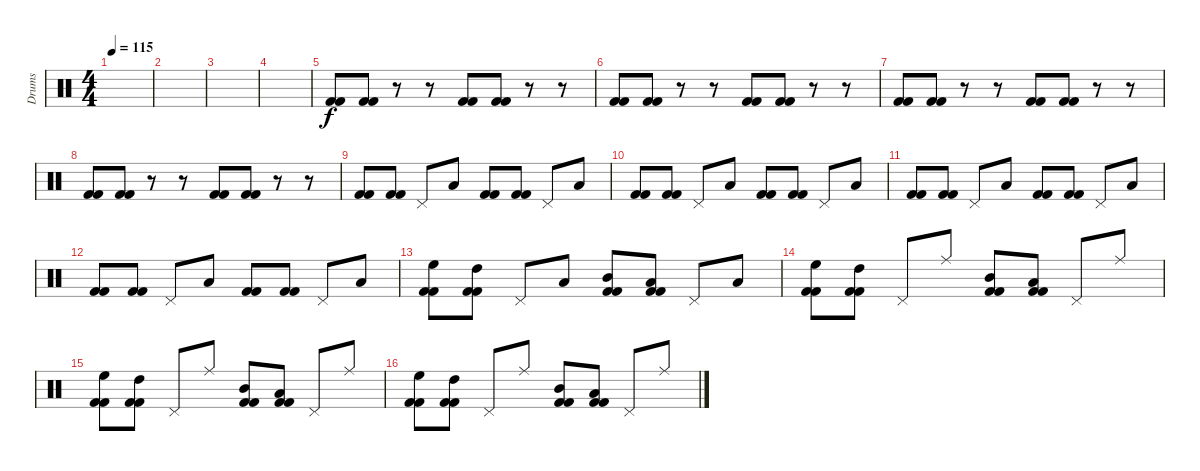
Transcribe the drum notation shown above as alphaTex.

\track ("Drums" "Drums") {instrument percussion}
\staff {score}
\articulation defaults
\ts (4 4)
\tempo 115
\clef neutral
\ks c
|
|
|
|
("Kick (hit) 2" "Kick (hit) 2").8 ("Kick (hit) 2" "Kick (hit) 2").8 r.8 r.8 ("Kick (hit) 2" "Kick (hit) 2").8 ("Kick (hit) 2" "Kick (hit) 2").8 r.8 r.8 |
("Kick (hit) 2" "Kick (hit) 2").8 ("Kick (hit) 2" "Kick (hit) 2").8 r.8 r.8 ("Kick (hit) 2" "Kick (hit) 2").8 ("Kick (hit) 2" "Kick (hit) 2").8 r.8 r.8 |
("Kick (hit) 2" "Kick (hit) 2").8 ("Kick (hit) 2" "Kick (hit) 2").8 r.8 r.8 ("Kick (hit) 2" "Kick (hit) 2").8 ("Kick (hit) 2" "Kick (hit) 2").8 r.8 r.8 |
("Kick (hit) 2" "Kick (hit) 2").8 ("Kick (hit) 2" "Kick (hit) 2").8 r.8 r.8 ("Kick (hit) 2" "Kick (hit) 2").8 ("Kick (hit) 2" "Kick (hit) 2").8 r.8 r.8 |
("Kick (hit) 2" "Kick (hit) 2").8 ("Kick (hit) 2" "Kick (hit) 2").8 "Pedal Hi-Hat (hit)".8 "Low Tom (hit)".8 ("Kick (hit) 2" "Kick (hit) 2").8 ("Kick (hit) 2" "Kick (hit) 2").8 "Pedal Hi-Hat (hit)".8 "Low Tom (hit)".8 |
("Kick (hit) 2" "Kick (hit) 2").8 ("Kick (hit) 2" "Kick (hit) 2").8 "Pedal Hi-Hat (hit)".8 "Low Tom (hit)".8 ("Kick (hit) 2" "Kick (hit) 2").8 ("Kick (hit) 2" "Kick (hit) 2").8 "Pedal Hi-Hat (hit)".8 "Low Tom (hit)".8 |
("Kick (hit) 2" "Kick (hit) 2").8 ("Kick (hit) 2" "Kick (hit) 2").8 "Pedal Hi-Hat (hit)".8 "Low Tom (hit)".8 ("Kick (hit) 2" "Kick (hit) 2").8 ("Kick (hit) 2" "Kick (hit) 2").8 "Pedal Hi-Hat (hit)".8 "Low Tom (hit)".8 |
("Kick (hit) 2" "Kick (hit) 2").8 ("Kick (hit) 2" "Kick (hit) 2").8 "Pedal Hi-Hat (hit)".8 "Low Tom (hit)".8 ("Kick (hit) 2" "Kick (hit) 2").8 ("Kick (hit) 2" "Kick (hit) 2").8 "Pedal Hi-Hat (hit)".8 "Low Tom (hit)".8 |
("High Floor Tom (hit)" "Kick (hit) 2" "Kick (hit) 2").8 ("High Tom (hit)" "Kick (hit) 2" "Kick (hit) 2").8 "Pedal Hi-Hat (hit)".8 "Low Tom (hit)".8 ("Mid Tom (hit)" "Kick (hit) 2" "Kick (hit) 2").8 ("Low Tom (hit)" "Kick (hit) 2" "Kick (hit) 2").8 "Pedal Hi-Hat (hit)".8 "Low Tom (hit)".8 |
("High Floor Tom (hit)" "Kick (hit) 2" "Kick (hit) 2").8 ("High Tom (hit)" "Kick (hit) 2" "Kick (hit) 2").8 "Pedal Hi-Hat (hit)".8 "Ride (middle)".8 ("Mid Tom (hit)" "Kick (hit) 2" "Kick (hit) 2").8 ("Low Tom (hit)" "Kick (hit) 2" "Kick (hit) 2").8 "Pedal Hi-Hat (hit)".8 "Ride (middle)".8 |
("High Floor Tom (hit)" "Kick (hit) 2" "Kick (hit) 2").8 ("High Tom (hit)" "Kick (hit) 2" "Kick (hit) 2").8 "Pedal Hi-Hat (hit)".8 "Ride (middle)".8 ("Mid Tom (hit)" "Kick (hit) 2" "Kick (hit) 2").8 ("Low Tom (hit)" "Kick (hit) 2" "Kick (hit) 2").8 "Pedal Hi-Hat (hit)".8 "Ride (middle)".8 |
("High Floor Tom (hit)" "Kick (hit) 2" "Kick (hit) 2").8 ("High Tom (hit)" "Kick (hit) 2" "Kick (hit) 2").8 "Pedal Hi-Hat (hit)".8 "Ride (middle)".8 ("Mid Tom (hit)" "Kick (hit) 2" "Kick (hit) 2").8 ("Low Tom (hit)" "Kick (hit) 2" "Kick (hit) 2").8 "Pedal Hi-Hat (hit)".8 "Ride (middle)".8
